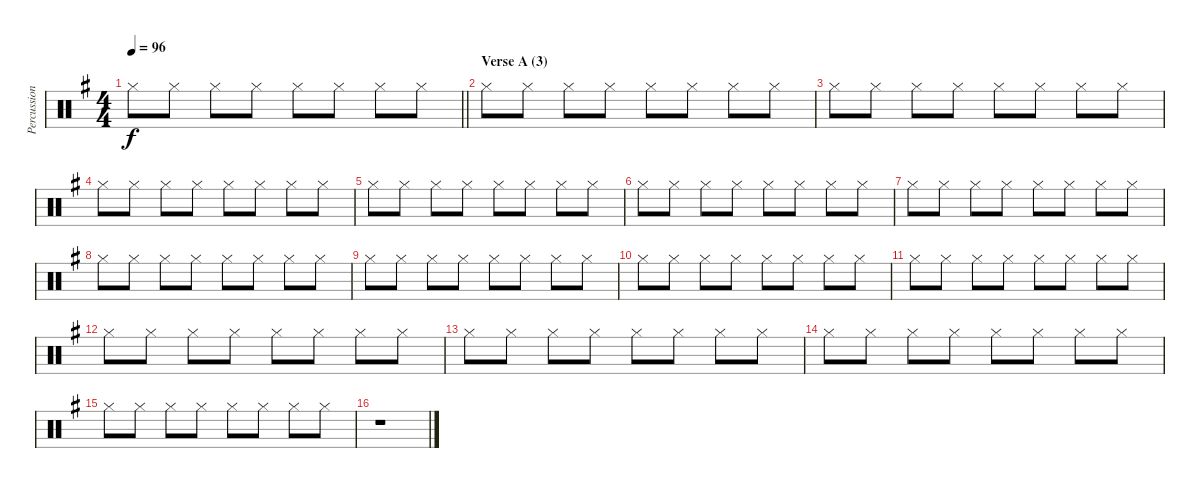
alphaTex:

\track ("Percussion" "Percussion") {instrument percussion}
\staff {score}
\articulation defaults
\ts (4 4)
\tempo 96
\clef neutral
\barLineRight lightlight
\ks eminor "Hi-Hat (closed)".8{dy f} "Hi-Hat (closed)".8 "Hi-Hat (closed)".8 "Hi-Hat (closed)".8 "Hi-Hat (closed)".8 "Hi-Hat (closed)".8 "Hi-Hat (closed)".8 "Hi-Hat (closed)".8
|
\section ("" "Verse A (3)")
"Hi-Hat (closed)".8 "Hi-Hat (closed)".8 "Hi-Hat (closed)".8 "Hi-Hat (closed)".8 "Hi-Hat (closed)".8 "Hi-Hat (closed)".8 "Hi-Hat (closed)".8 "Hi-Hat (closed)".8 |
"Hi-Hat (closed)".8 "Hi-Hat (closed)".8 "Hi-Hat (closed)".8 "Hi-Hat (closed)".8 "Hi-Hat (closed)".8 "Hi-Hat (closed)".8 "Hi-Hat (closed)".8 "Hi-Hat (closed)".8 |
"Hi-Hat (closed)".8 "Hi-Hat (closed)".8 "Hi-Hat (closed)".8 "Hi-Hat (closed)".8 "Hi-Hat (closed)".8 "Hi-Hat (closed)".8 "Hi-Hat (closed)".8 "Hi-Hat (closed)".8 |
"Hi-Hat (closed)".8 "Hi-Hat (closed)".8 "Hi-Hat (closed)".8 "Hi-Hat (closed)".8 "Hi-Hat (closed)".8 "Hi-Hat (closed)".8 "Hi-Hat (closed)".8 "Hi-Hat (closed)".8 |
"Hi-Hat (closed)".8 "Hi-Hat (closed)".8 "Hi-Hat (closed)".8 "Hi-Hat (closed)".8 "Hi-Hat (closed)".8 "Hi-Hat (closed)".8 "Hi-Hat (closed)".8 "Hi-Hat (closed)".8 |
"Hi-Hat (closed)".8 "Hi-Hat (closed)".8 "Hi-Hat (closed)".8 "Hi-Hat (closed)".8 "Hi-Hat (closed)".8 "Hi-Hat (closed)".8 "Hi-Hat (closed)".8 "Hi-Hat (closed)".8 |
"Hi-Hat (closed)".8 "Hi-Hat (closed)".8 "Hi-Hat (closed)".8 "Hi-Hat (closed)".8 "Hi-Hat (closed)".8 "Hi-Hat (closed)".8 "Hi-Hat (closed)".8 "Hi-Hat (closed)".8 |
"Hi-Hat (closed)".8 "Hi-Hat (closed)".8 "Hi-Hat (closed)".8 "Hi-Hat (closed)".8 "Hi-Hat (closed)".8 "Hi-Hat (closed)".8 "Hi-Hat (closed)".8 "Hi-Hat (closed)".8 |
"Hi-Hat (closed)".8 "Hi-Hat (closed)".8 "Hi-Hat (closed)".8 "Hi-Hat (closed)".8 "Hi-Hat (closed)".8 "Hi-Hat (closed)".8 "Hi-Hat (closed)".8 "Hi-Hat (closed)".8 |
"Hi-Hat (closed)".8 "Hi-Hat (closed)".8 "Hi-Hat (closed)".8 "Hi-Hat (closed)".8 "Hi-Hat (closed)".8 "Hi-Hat (closed)".8 "Hi-Hat (closed)".8 "Hi-Hat (closed)".8 |
"Hi-Hat (closed)".8 "Hi-Hat (closed)".8 "Hi-Hat (closed)".8 "Hi-Hat (closed)".8 "Hi-Hat (closed)".8 "Hi-Hat (closed)".8 "Hi-Hat (closed)".8 "Hi-Hat (closed)".8 |
"Hi-Hat (closed)".8 "Hi-Hat (closed)".8 "Hi-Hat (closed)".8 "Hi-Hat (closed)".8 "Hi-Hat (closed)".8 "Hi-Hat (closed)".8 "Hi-Hat (closed)".8 "Hi-Hat (closed)".8 |
"Hi-Hat (closed)".8 "Hi-Hat (closed)".8 "Hi-Hat (closed)".8 "Hi-Hat (closed)".8 "Hi-Hat (closed)".8 "Hi-Hat (closed)".8 "Hi-Hat (closed)".8 "Hi-Hat (closed)".8 |
"Hi-Hat (closed)".8 "Hi-Hat (closed)".8 "Hi-Hat (closed)".8 "Hi-Hat (closed)".8 "Hi-Hat (closed)".8 "Hi-Hat (closed)".8 "Hi-Hat (closed)".8 "Hi-Hat (closed)".8 |
r.1
